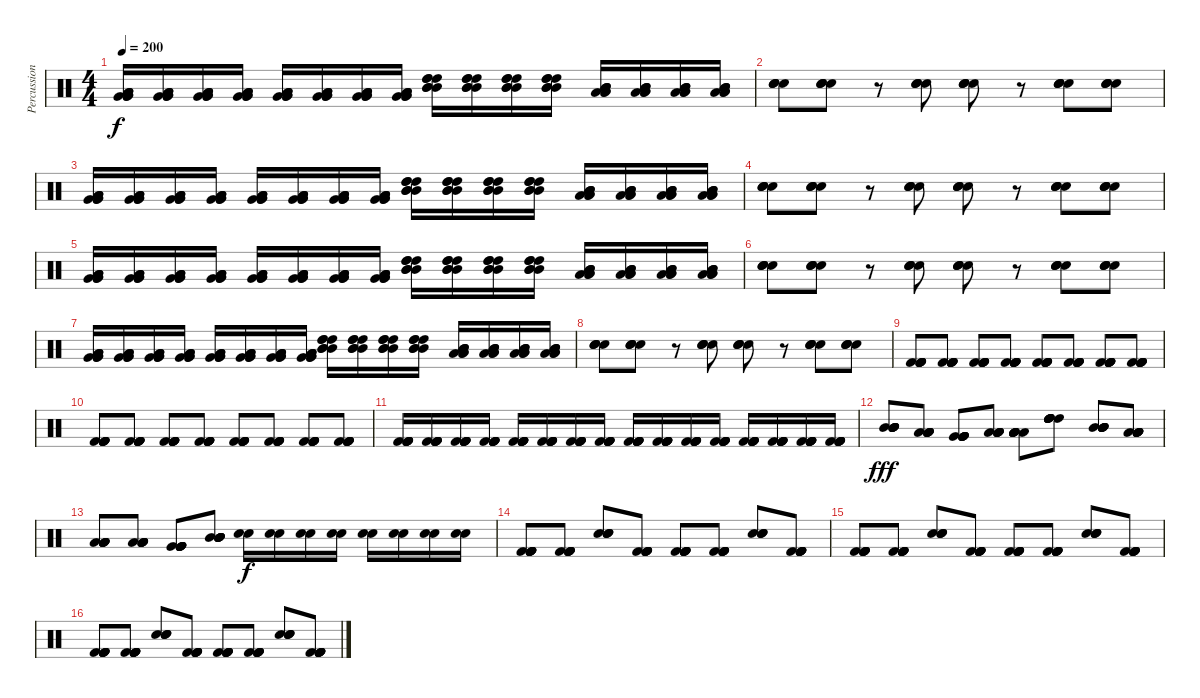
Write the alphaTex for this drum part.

\track ("Percussion" "Percussion") {instrument percussion}
\staff {score}
\articulation defaults
\ts (4 4)
\tempo 200
\clef neutral
\ks c
("Very Low Tom (hit)" "Very Low Tom (hit)" "Very Low Tom (hit)" "Low Floor Tom (hit)" "Low Floor Tom (hit)" "Low Floor Tom (hit)").16{dy f} ("Very Low Tom (hit)" "Very Low Tom (hit)" "Very Low Tom (hit)" "Low Floor Tom (hit)" "Low Floor Tom (hit)" "Low Floor Tom (hit)").16 ("Very Low Tom (hit)" "Very Low Tom (hit)" "Very Low Tom (hit)" "Low Floor Tom (hit)" "Low Floor Tom (hit)" "Low Floor Tom (hit)").16 ("Very Low Tom (hit)" "Very Low Tom (hit)" "Very Low Tom (hit)" "Low Floor Tom (hit)" "Low Floor Tom (hit)" "Low Floor Tom (hit)").16 ("Low Tom (hit)" "Low Tom (hit)" "Low Tom (hit)" "Very Low Tom (hit)" "Very Low Tom (hit)" "Very Low Tom (hit)").16 ("Low Tom (hit)" "Low Tom (hit)" "Low Tom (hit)" "Very Low Tom (hit)" "Very Low Tom (hit)" "Very Low Tom (hit)").16 ("Low Tom (hit)" "Low Tom (hit)" "Low Tom (hit)" "Very Low Tom (hit)" "Very Low Tom (hit)" "Very Low Tom (hit)").16 ("Low Tom (hit)" "Low Tom (hit)" "Low Tom (hit)" "Very Low Tom (hit)" "Very Low Tom (hit)" "Very Low Tom (hit)").16 ("High Tom (hit)" "High Tom (hit)" "High Tom (hit)" "Mid Tom (hit)" "Mid Tom (hit)" "Mid Tom (hit)").16 ("High Tom (hit)" "High Tom (hit)" "High Tom (hit)" "Mid Tom (hit)" "Mid Tom (hit)" "Mid Tom (hit)").16 ("High Tom (hit)" "High Tom (hit)" "High Tom (hit)" "Mid Tom (hit)" "Mid Tom (hit)" "Mid Tom (hit)").16 ("High Tom (hit)" "High Tom (hit)" "High Tom (hit)" "Mid Tom (hit)" "Mid Tom (hit)" "Mid Tom (hit)").16 ("Mid Tom (hit)" "Mid Tom (hit)" "Mid Tom (hit)" "Low Tom (hit)" "Low Tom (hit)" "Low Tom (hit)").16 ("Mid Tom (hit)" "Mid Tom (hit)" "Mid Tom (hit)" "Low Tom (hit)" "Low Tom (hit)" "Low Tom (hit)").16 ("Mid Tom (hit)" "Mid Tom (hit)" "Mid Tom (hit)" "Low Tom (hit)" "Low Tom (hit)" "Low Tom (hit)").16 ("Mid Tom (hit)" "Mid Tom (hit)" "Mid Tom (hit)" "Low Tom (hit)" "Low Tom (hit)" "Low Tom (hit)").16 |
("Snare (hit) 2" "Snare (hit) 2" "Snare (hit) 2" "Snare (hit) 2").8 ("Snare (hit) 2" "Snare (hit) 2" "Snare (hit) 2" "Snare (hit) 2").8 r.8 ("Snare (hit) 2" "Snare (hit) 2" "Snare (hit) 2" "Snare (hit) 2").8 ("Snare (hit) 2" "Snare (hit) 2" "Snare (hit) 2" "Snare (hit) 2").8 r.8 ("Snare (hit) 2" "Snare (hit) 2" "Snare (hit) 2" "Snare (hit) 2").8 ("Snare (hit) 2" "Snare (hit) 2" "Snare (hit) 2" "Snare (hit) 2").8 |
("Very Low Tom (hit)" "Very Low Tom (hit)" "Very Low Tom (hit)" "Low Floor Tom (hit)" "Low Floor Tom (hit)" "Low Floor Tom (hit)").16 ("Very Low Tom (hit)" "Very Low Tom (hit)" "Very Low Tom (hit)" "Low Floor Tom (hit)" "Low Floor Tom (hit)" "Low Floor Tom (hit)").16 ("Very Low Tom (hit)" "Very Low Tom (hit)" "Very Low Tom (hit)" "Low Floor Tom (hit)" "Low Floor Tom (hit)" "Low Floor Tom (hit)").16 ("Very Low Tom (hit)" "Very Low Tom (hit)" "Very Low Tom (hit)" "Low Floor Tom (hit)" "Low Floor Tom (hit)" "Low Floor Tom (hit)").16 ("Low Tom (hit)" "Low Tom (hit)" "Low Tom (hit)" "Very Low Tom (hit)" "Very Low Tom (hit)" "Very Low Tom (hit)").16 ("Low Tom (hit)" "Low Tom (hit)" "Low Tom (hit)" "Very Low Tom (hit)" "Very Low Tom (hit)" "Very Low Tom (hit)").16 ("Low Tom (hit)" "Low Tom (hit)" "Low Tom (hit)" "Very Low Tom (hit)" "Very Low Tom (hit)" "Very Low Tom (hit)").16 ("Low Tom (hit)" "Low Tom (hit)" "Low Tom (hit)" "Very Low Tom (hit)" "Very Low Tom (hit)" "Very Low Tom (hit)").16 ("High Tom (hit)" "High Tom (hit)" "High Tom (hit)" "Mid Tom (hit)" "Mid Tom (hit)" "Mid Tom (hit)").16 ("High Tom (hit)" "High Tom (hit)" "High Tom (hit)" "Mid Tom (hit)" "Mid Tom (hit)" "Mid Tom (hit)").16 ("High Tom (hit)" "High Tom (hit)" "High Tom (hit)" "Mid Tom (hit)" "Mid Tom (hit)" "Mid Tom (hit)").16 ("High Tom (hit)" "High Tom (hit)" "High Tom (hit)" "Mid Tom (hit)" "Mid Tom (hit)" "Mid Tom (hit)").16 ("Mid Tom (hit)" "Mid Tom (hit)" "Mid Tom (hit)" "Low Tom (hit)" "Low Tom (hit)" "Low Tom (hit)").16 ("Mid Tom (hit)" "Mid Tom (hit)" "Mid Tom (hit)" "Low Tom (hit)" "Low Tom (hit)" "Low Tom (hit)").16 ("Mid Tom (hit)" "Mid Tom (hit)" "Mid Tom (hit)" "Low Tom (hit)" "Low Tom (hit)" "Low Tom (hit)").16 ("Mid Tom (hit)" "Mid Tom (hit)" "Mid Tom (hit)" "Low Tom (hit)" "Low Tom (hit)" "Low Tom (hit)").16 |
("Snare (hit) 2" "Snare (hit) 2" "Snare (hit) 2" "Snare (hit) 2").8 ("Snare (hit) 2" "Snare (hit) 2" "Snare (hit) 2" "Snare (hit) 2").8 r.8 ("Snare (hit) 2" "Snare (hit) 2" "Snare (hit) 2" "Snare (hit) 2").8 ("Snare (hit) 2" "Snare (hit) 2" "Snare (hit) 2" "Snare (hit) 2").8 r.8 ("Snare (hit) 2" "Snare (hit) 2" "Snare (hit) 2" "Snare (hit) 2").8 ("Snare (hit) 2" "Snare (hit) 2" "Snare (hit) 2" "Snare (hit) 2").8 |
("Very Low Tom (hit)" "Very Low Tom (hit)" "Very Low Tom (hit)" "Low Floor Tom (hit)" "Low Floor Tom (hit)" "Low Floor Tom (hit)").16 ("Very Low Tom (hit)" "Very Low Tom (hit)" "Very Low Tom (hit)" "Low Floor Tom (hit)" "Low Floor Tom (hit)" "Low Floor Tom (hit)").16 ("Very Low Tom (hit)" "Very Low Tom (hit)" "Very Low Tom (hit)" "Low Floor Tom (hit)" "Low Floor Tom (hit)" "Low Floor Tom (hit)").16 ("Very Low Tom (hit)" "Very Low Tom (hit)" "Very Low Tom (hit)" "Low Floor Tom (hit)" "Low Floor Tom (hit)" "Low Floor Tom (hit)").16 ("Low Tom (hit)" "Low Tom (hit)" "Low Tom (hit)" "Very Low Tom (hit)" "Very Low Tom (hit)" "Very Low Tom (hit)").16 ("Low Tom (hit)" "Low Tom (hit)" "Low Tom (hit)" "Very Low Tom (hit)" "Very Low Tom (hit)" "Very Low Tom (hit)").16 ("Low Tom (hit)" "Low Tom (hit)" "Low Tom (hit)" "Very Low Tom (hit)" "Very Low Tom (hit)" "Very Low Tom (hit)").16 ("Low Tom (hit)" "Low Tom (hit)" "Low Tom (hit)" "Very Low Tom (hit)" "Very Low Tom (hit)" "Very Low Tom (hit)").16 ("High Tom (hit)" "High Tom (hit)" "High Tom (hit)" "Mid Tom (hit)" "Mid Tom (hit)" "Mid Tom (hit)").16 ("High Tom (hit)" "High Tom (hit)" "High Tom (hit)" "Mid Tom (hit)" "Mid Tom (hit)" "Mid Tom (hit)").16 ("High Tom (hit)" "High Tom (hit)" "High Tom (hit)" "Mid Tom (hit)" "Mid Tom (hit)" "Mid Tom (hit)").16 ("High Tom (hit)" "High Tom (hit)" "High Tom (hit)" "Mid Tom (hit)" "Mid Tom (hit)" "Mid Tom (hit)").16 ("Mid Tom (hit)" "Mid Tom (hit)" "Mid Tom (hit)" "Low Tom (hit)" "Low Tom (hit)" "Low Tom (hit)").16 ("Mid Tom (hit)" "Mid Tom (hit)" "Mid Tom (hit)" "Low Tom (hit)" "Low Tom (hit)" "Low Tom (hit)").16 ("Mid Tom (hit)" "Mid Tom (hit)" "Mid Tom (hit)" "Low Tom (hit)" "Low Tom (hit)" "Low Tom (hit)").16 ("Mid Tom (hit)" "Mid Tom (hit)" "Mid Tom (hit)" "Low Tom (hit)" "Low Tom (hit)" "Low Tom (hit)").16 |
("Snare (hit) 2" "Snare (hit) 2" "Snare (hit) 2" "Snare (hit) 2").8 ("Snare (hit) 2" "Snare (hit) 2" "Snare (hit) 2" "Snare (hit) 2").8 r.8 ("Snare (hit) 2" "Snare (hit) 2" "Snare (hit) 2" "Snare (hit) 2").8 ("Snare (hit) 2" "Snare (hit) 2" "Snare (hit) 2" "Snare (hit) 2").8 r.8 ("Snare (hit) 2" "Snare (hit) 2" "Snare (hit) 2" "Snare (hit) 2").8 ("Snare (hit) 2" "Snare (hit) 2" "Snare (hit) 2" "Snare (hit) 2").8 |
("Very Low Tom (hit)" "Very Low Tom (hit)" "Very Low Tom (hit)" "Low Floor Tom (hit)" "Low Floor Tom (hit)" "Low Floor Tom (hit)").16 ("Very Low Tom (hit)" "Very Low Tom (hit)" "Very Low Tom (hit)" "Low Floor Tom (hit)" "Low Floor Tom (hit)" "Low Floor Tom (hit)").16 ("Very Low Tom (hit)" "Very Low Tom (hit)" "Very Low Tom (hit)" "Low Floor Tom (hit)" "Low Floor Tom (hit)" "Low Floor Tom (hit)").16 ("Very Low Tom (hit)" "Very Low Tom (hit)" "Very Low Tom (hit)" "Low Floor Tom (hit)" "Low Floor Tom (hit)" "Low Floor Tom (hit)").16 ("Low Tom (hit)" "Low Tom (hit)" "Low Tom (hit)" "Very Low Tom (hit)" "Very Low Tom (hit)" "Very Low Tom (hit)").16 ("Low Tom (hit)" "Low Tom (hit)" "Low Tom (hit)" "Very Low Tom (hit)" "Very Low Tom (hit)" "Very Low Tom (hit)").16 ("Low Tom (hit)" "Low Tom (hit)" "Low Tom (hit)" "Very Low Tom (hit)" "Very Low Tom (hit)" "Very Low Tom (hit)").16 ("Low Tom (hit)" "Low Tom (hit)" "Low Tom (hit)" "Very Low Tom (hit)" "Very Low Tom (hit)" "Very Low Tom (hit)").16 ("High Tom (hit)" "High Tom (hit)" "High Tom (hit)" "Mid Tom (hit)" "Mid Tom (hit)" "Mid Tom (hit)").16 ("High Tom (hit)" "High Tom (hit)" "High Tom (hit)" "Mid Tom (hit)" "Mid Tom (hit)" "Mid Tom (hit)").16 ("High Tom (hit)" "High Tom (hit)" "High Tom (hit)" "Mid Tom (hit)" "Mid Tom (hit)" "Mid Tom (hit)").16 ("High Tom (hit)" "High Tom (hit)" "High Tom (hit)" "Mid Tom (hit)" "Mid Tom (hit)" "Mid Tom (hit)").16 ("Mid Tom (hit)" "Mid Tom (hit)" "Mid Tom (hit)" "Low Tom (hit)" "Low Tom (hit)" "Low Tom (hit)").16 ("Mid Tom (hit)" "Mid Tom (hit)" "Mid Tom (hit)" "Low Tom (hit)" "Low Tom (hit)" "Low Tom (hit)").16 ("Mid Tom (hit)" "Mid Tom (hit)" "Mid Tom (hit)" "Low Tom (hit)" "Low Tom (hit)" "Low Tom (hit)").16 ("Mid Tom (hit)" "Mid Tom (hit)" "Mid Tom (hit)" "Low Tom (hit)" "Low Tom (hit)" "Low Tom (hit)").16 |
("Snare (hit) 2" "Snare (hit) 2" "Snare (hit) 2" "Snare (hit) 2").8 ("Snare (hit) 2" "Snare (hit) 2" "Snare (hit) 2" "Snare (hit) 2").8 r.8 ("Snare (hit) 2" "Snare (hit) 2" "Snare (hit) 2" "Snare (hit) 2").8 ("Snare (hit) 2" "Snare (hit) 2" "Snare (hit) 2" "Snare (hit) 2").8 r.8 ("Snare (hit) 2" "Snare (hit) 2" "Snare (hit) 2" "Snare (hit) 2").8 ("Snare (hit) 2" "Snare (hit) 2" "Snare (hit) 2" "Snare (hit) 2").8 |
("Kick (hit) 2" "Kick (hit) 2" "Kick (hit) 2" "Kick (hit) 2" "Kick (hit) 2" "Kick (hit) 2").8 ("Kick (hit) 2" "Kick (hit) 2" "Kick (hit) 2" "Kick (hit) 2" "Kick (hit) 2" "Kick (hit) 2").8 ("Kick (hit) 2" "Kick (hit) 2" "Kick (hit) 2" "Kick (hit) 2" "Kick (hit) 2" "Kick (hit) 2").8 ("Kick (hit) 2" "Kick (hit) 2" "Kick (hit) 2" "Kick (hit) 2" "Kick (hit) 2" "Kick (hit) 2").8 ("Kick (hit) 2" "Kick (hit) 2" "Kick (hit) 2" "Kick (hit) 2" "Kick (hit) 2" "Kick (hit) 2").8 ("Kick (hit) 2" "Kick (hit) 2" "Kick (hit) 2" "Kick (hit) 2" "Kick (hit) 2" "Kick (hit) 2").8 ("Kick (hit) 2" "Kick (hit) 2" "Kick (hit) 2" "Kick (hit) 2" "Kick (hit) 2" "Kick (hit) 2").8 ("Kick (hit) 2" "Kick (hit) 2" "Kick (hit) 2" "Kick (hit) 2" "Kick (hit) 2" "Kick (hit) 2").8 |
("Kick (hit) 2" "Kick (hit) 2" "Kick (hit) 2" "Kick (hit) 2" "Kick (hit) 2" "Kick (hit) 2").8 ("Kick (hit) 2" "Kick (hit) 2" "Kick (hit) 2" "Kick (hit) 2" "Kick (hit) 2" "Kick (hit) 2").8 ("Kick (hit) 2" "Kick (hit) 2" "Kick (hit) 2" "Kick (hit) 2" "Kick (hit) 2" "Kick (hit) 2").8 ("Kick (hit) 2" "Kick (hit) 2" "Kick (hit) 2" "Kick (hit) 2" "Kick (hit) 2" "Kick (hit) 2").8 ("Kick (hit) 2" "Kick (hit) 2" "Kick (hit) 2" "Kick (hit) 2" "Kick (hit) 2" "Kick (hit) 2").8 ("Kick (hit) 2" "Kick (hit) 2" "Kick (hit) 2" "Kick (hit) 2" "Kick (hit) 2" "Kick (hit) 2").8 ("Kick (hit) 2" "Kick (hit) 2" "Kick (hit) 2" "Kick (hit) 2" "Kick (hit) 2" "Kick (hit) 2").8 ("Kick (hit) 2" "Kick (hit) 2" "Kick (hit) 2" "Kick (hit) 2" "Kick (hit) 2" "Kick (hit) 2").8 |
("Kick (hit) 2" "Kick (hit) 2" "Kick (hit) 2" "Kick (hit) 2" "Kick (hit) 2" "Kick (hit) 2").16 ("Kick (hit) 2" "Kick (hit) 2" "Kick (hit) 2" "Kick (hit) 2" "Kick (hit) 2" "Kick (hit) 2").16 ("Kick (hit) 2" "Kick (hit) 2" "Kick (hit) 2" "Kick (hit) 2" "Kick (hit) 2" "Kick (hit) 2").16 ("Kick (hit) 2" "Kick (hit) 2" "Kick (hit) 2" "Kick (hit) 2" "Kick (hit) 2" "Kick (hit) 2").16 ("Kick (hit) 2" "Kick (hit) 2" "Kick (hit) 2" "Kick (hit) 2" "Kick (hit) 2" "Kick (hit) 2").16 ("Kick (hit) 2" "Kick (hit) 2" "Kick (hit) 2" "Kick (hit) 2" "Kick (hit) 2" "Kick (hit) 2").16 ("Kick (hit) 2" "Kick (hit) 2" "Kick (hit) 2" "Kick (hit) 2" "Kick (hit) 2" "Kick (hit) 2").16 ("Kick (hit) 2" "Kick (hit) 2" "Kick (hit) 2" "Kick (hit) 2" "Kick (hit) 2" "Kick (hit) 2").16 ("Kick (hit) 2" "Kick (hit) 2" "Kick (hit) 2" "Kick (hit) 2" "Kick (hit) 2" "Kick (hit) 2").16 ("Kick (hit) 2" "Kick (hit) 2" "Kick (hit) 2" "Kick (hit) 2" "Kick (hit) 2" "Kick (hit) 2").16 ("Kick (hit) 2" "Kick (hit) 2" "Kick (hit) 2" "Kick (hit) 2" "Kick (hit) 2" "Kick (hit) 2").16 ("Kick (hit) 2" "Kick (hit) 2" "Kick (hit) 2" "Kick (hit) 2" "Kick (hit) 2" "Kick (hit) 2").16 ("Kick (hit) 2" "Kick (hit) 2" "Kick (hit) 2" "Kick (hit) 2" "Kick (hit) 2" "Kick (hit) 2").16 ("Kick (hit) 2" "Kick (hit) 2" "Kick (hit) 2" "Kick (hit) 2" "Kick (hit) 2" "Kick (hit) 2").16 ("Kick (hit) 2" "Kick (hit) 2" "Kick (hit) 2" "Kick (hit) 2" "Kick (hit) 2" "Kick (hit) 2").16 ("Kick (hit) 2" "Kick (hit) 2" "Kick (hit) 2" "Kick (hit) 2" "Kick (hit) 2" "Kick (hit) 2").16 |
("Mid Tom (hit)" "Mid Tom (hit)" "Mid Tom (hit)" "Mid Tom (hit)" "Mid Tom (hit)" "Mid Tom (hit)").8{dy fff} ("Low Tom (hit)" "Low Tom (hit)" "Low Tom (hit)" "Low Tom (hit)" "Low Tom (hit)" "Low Tom (hit)").8 ("Very Low Tom (hit)" "Very Low Tom (hit)" "Very Low Tom (hit)" "Very Low Tom (hit)" "Very Low Tom (hit)" "Very Low Tom (hit)").8 ("Low Floor Tom (hit)" "Low Floor Tom (hit)" "Low Floor Tom (hit)" "Low Floor Tom (hit)" "Low Floor Tom (hit)" "Low Floor Tom (hit)").8 ("Low Floor Tom (hit)" "Low Floor Tom (hit)" "Low Floor Tom (hit)" "Low Floor Tom (hit)" "Low Floor Tom (hit)" "Low Floor Tom (hit)").8 ("High Tom (hit)" "High Tom (hit)" "High Tom (hit)" "High Tom (hit)" "High Tom (hit)" "High Tom (hit)").8 ("Mid Tom (hit)" "Mid Tom (hit)" "Mid Tom (hit)" "Mid Tom (hit)" "Mid Tom (hit)" "Mid Tom (hit)").8 ("Low Floor Tom (hit)" "Low Floor Tom (hit)" "Low Floor Tom (hit)" "Low Floor Tom (hit)" "Low Floor Tom (hit)" "Low Floor Tom (hit)").8 |
("Low Floor Tom (hit)" "Low Floor Tom (hit)" "Low Floor Tom (hit)" "Low Floor Tom (hit)" "Low Floor Tom (hit)" "Low Floor Tom (hit)").8 ("Low Floor Tom (hit)" "Low Floor Tom (hit)" "Low Floor Tom (hit)" "Low Floor Tom (hit)" "Low Floor Tom (hit)" "Low Floor Tom (hit)").8 ("Very Low Tom (hit)" "Very Low Tom (hit)" "Very Low Tom (hit)" "Very Low Tom (hit)" "Very Low Tom (hit)" "Very Low Tom (hit)").8 ("Mid Tom (hit)" "Mid Tom (hit)" "Mid Tom (hit)" "Mid Tom (hit)" "Mid Tom (hit)" "Mid Tom (hit)").8 ("Snare (hit) 2" "Snare (hit) 2").16{dy f} ("Snare (hit) 2" "Snare (hit) 2").16 ("Snare (hit) 2" "Snare (hit) 2").16 ("Snare (hit) 2" "Snare (hit) 2").16 ("Snare (hit) 2" "Snare (hit) 2").16 ("Snare (hit) 2" "Snare (hit) 2").16 ("Snare (hit) 2" "Snare (hit) 2").16 ("Snare (hit) 2" "Snare (hit) 2").16 |
("Kick (hit) 2" "Kick (hit) 2" "Kick (hit) 2" "Kick (hit) 2" "Kick (hit) 2" "Kick (hit) 2").8 ("Kick (hit) 2" "Kick (hit) 2" "Kick (hit) 2" "Kick (hit) 2" "Kick (hit) 2" "Kick (hit) 2").8 ("Snare (hit) 2" "Snare (hit) 2" "Snare (hit) 2" "Snare (hit) 2").8 ("Kick (hit) 2" "Kick (hit) 2" "Kick (hit) 2" "Kick (hit) 2" "Kick (hit) 2" "Kick (hit) 2").8 ("Kick (hit) 2" "Kick (hit) 2" "Kick (hit) 2" "Kick (hit) 2" "Kick (hit) 2" "Kick (hit) 2").8 ("Kick (hit) 2" "Kick (hit) 2" "Kick (hit) 2" "Kick (hit) 2" "Kick (hit) 2" "Kick (hit) 2").8 ("Snare (hit) 2" "Snare (hit) 2" "Snare (hit) 2" "Snare (hit) 2").8 ("Kick (hit) 2" "Kick (hit) 2" "Kick (hit) 2" "Kick (hit) 2" "Kick (hit) 2" "Kick (hit) 2").8 |
("Kick (hit) 2" "Kick (hit) 2" "Kick (hit) 2" "Kick (hit) 2" "Kick (hit) 2" "Kick (hit) 2").8 ("Kick (hit) 2" "Kick (hit) 2" "Kick (hit) 2" "Kick (hit) 2" "Kick (hit) 2" "Kick (hit) 2").8 ("Snare (hit) 2" "Snare (hit) 2" "Snare (hit) 2" "Snare (hit) 2").8 ("Kick (hit) 2" "Kick (hit) 2" "Kick (hit) 2" "Kick (hit) 2" "Kick (hit) 2" "Kick (hit) 2").8 ("Kick (hit) 2" "Kick (hit) 2" "Kick (hit) 2" "Kick (hit) 2" "Kick (hit) 2" "Kick (hit) 2").8 ("Kick (hit) 2" "Kick (hit) 2" "Kick (hit) 2" "Kick (hit) 2" "Kick (hit) 2" "Kick (hit) 2").8 ("Snare (hit) 2" "Snare (hit) 2" "Snare (hit) 2" "Snare (hit) 2").8 ("Kick (hit) 2" "Kick (hit) 2" "Kick (hit) 2" "Kick (hit) 2" "Kick (hit) 2" "Kick (hit) 2").8 |
("Kick (hit) 2" "Kick (hit) 2" "Kick (hit) 2" "Kick (hit) 2" "Kick (hit) 2" "Kick (hit) 2").8 ("Kick (hit) 2" "Kick (hit) 2" "Kick (hit) 2" "Kick (hit) 2" "Kick (hit) 2" "Kick (hit) 2").8 ("Snare (hit) 2" "Snare (hit) 2" "Snare (hit) 2" "Snare (hit) 2").8 ("Kick (hit) 2" "Kick (hit) 2" "Kick (hit) 2" "Kick (hit) 2" "Kick (hit) 2" "Kick (hit) 2").8 ("Kick (hit) 2" "Kick (hit) 2" "Kick (hit) 2" "Kick (hit) 2" "Kick (hit) 2" "Kick (hit) 2").8 ("Kick (hit) 2" "Kick (hit) 2" "Kick (hit) 2" "Kick (hit) 2" "Kick (hit) 2" "Kick (hit) 2").8 ("Snare (hit) 2" "Snare (hit) 2" "Snare (hit) 2" "Snare (hit) 2").8 ("Kick (hit) 2" "Kick (hit) 2" "Kick (hit) 2" "Kick (hit) 2" "Kick (hit) 2" "Kick (hit) 2").8
